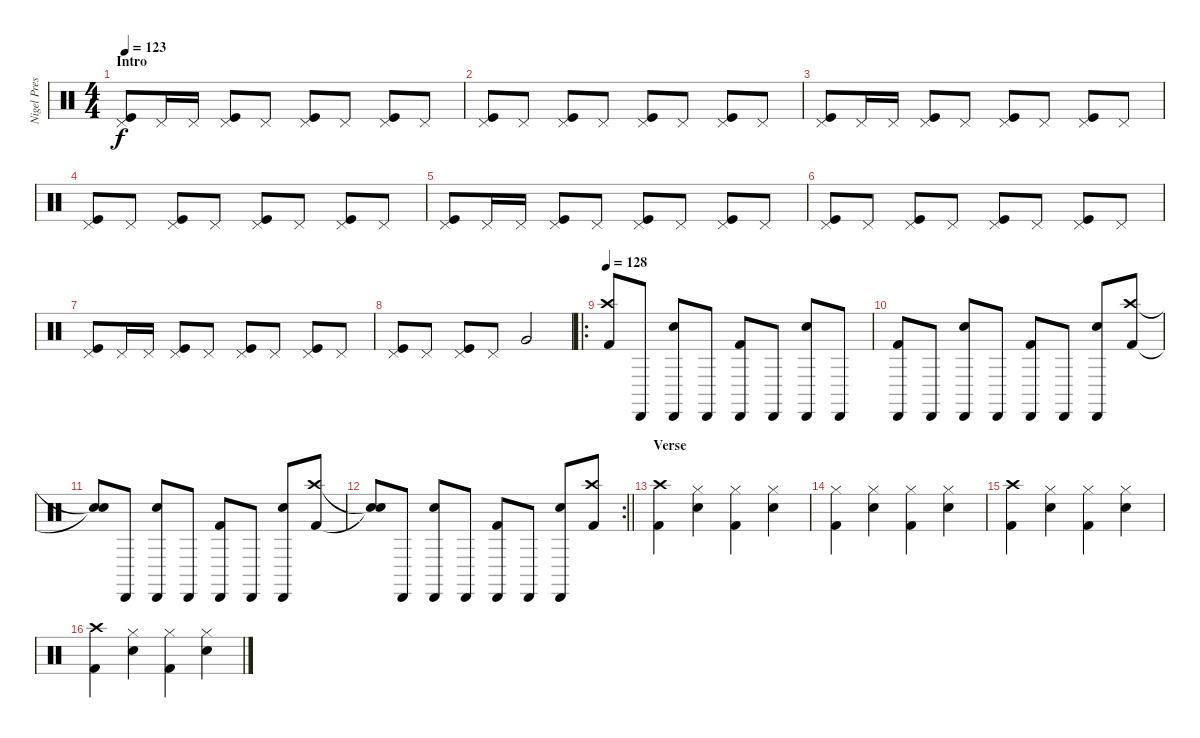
\track ("Nigel Preston" "Nigel Pres") {instrument percussion}
\staff {score}
\articulation defaults
\ts (4 4)
\section ("" "Intro")
\tempo 123
\clef neutral
\ks c
("Kick (hit)" "Pedal Hi-Hat (hit)").8{dy f} "Pedal Hi-Hat (hit)".16 "Pedal Hi-Hat (hit)".16 ("Kick (hit)" "Pedal Hi-Hat (hit)").8 "Pedal Hi-Hat (hit)".8 ("Kick (hit)" "Pedal Hi-Hat (hit)").8 "Pedal Hi-Hat (hit)".8 ("Kick (hit)" "Pedal Hi-Hat (hit)").8 "Pedal Hi-Hat (hit)".8 |
("Kick (hit)" "Pedal Hi-Hat (hit)").8 "Pedal Hi-Hat (hit)".8 ("Kick (hit)" "Pedal Hi-Hat (hit)").8 "Pedal Hi-Hat (hit)".8 ("Kick (hit)" "Pedal Hi-Hat (hit)").8 "Pedal Hi-Hat (hit)".8 ("Kick (hit)" "Pedal Hi-Hat (hit)").8 "Pedal Hi-Hat (hit)".8 |
("Kick (hit)" "Pedal Hi-Hat (hit)").8 "Pedal Hi-Hat (hit)".16 "Pedal Hi-Hat (hit)".16 ("Kick (hit)" "Pedal Hi-Hat (hit)").8 "Pedal Hi-Hat (hit)".8 ("Kick (hit)" "Pedal Hi-Hat (hit)").8 "Pedal Hi-Hat (hit)".8 ("Kick (hit)" "Pedal Hi-Hat (hit)").8 "Pedal Hi-Hat (hit)".8 |
("Kick (hit)" "Pedal Hi-Hat (hit)").8 "Pedal Hi-Hat (hit)".8 ("Kick (hit)" "Pedal Hi-Hat (hit)").8 "Pedal Hi-Hat (hit)".8 ("Kick (hit)" "Pedal Hi-Hat (hit)").8 "Pedal Hi-Hat (hit)".8 ("Kick (hit)" "Pedal Hi-Hat (hit)").8 "Pedal Hi-Hat (hit)".8 |
("Kick (hit)" "Pedal Hi-Hat (hit)").8 "Pedal Hi-Hat (hit)".16 "Pedal Hi-Hat (hit)".16 ("Kick (hit)" "Pedal Hi-Hat (hit)").8 "Pedal Hi-Hat (hit)".8 ("Kick (hit)" "Pedal Hi-Hat (hit)").8 "Pedal Hi-Hat (hit)".8 ("Kick (hit)" "Pedal Hi-Hat (hit)").8 "Pedal Hi-Hat (hit)".8 |
("Kick (hit)" "Pedal Hi-Hat (hit)").8 "Pedal Hi-Hat (hit)".8 ("Kick (hit)" "Pedal Hi-Hat (hit)").8 "Pedal Hi-Hat (hit)".8 ("Kick (hit)" "Pedal Hi-Hat (hit)").8 "Pedal Hi-Hat (hit)".8 ("Kick (hit)" "Pedal Hi-Hat (hit)").8 "Pedal Hi-Hat (hit)".8 |
("Kick (hit)" "Pedal Hi-Hat (hit)").8 "Pedal Hi-Hat (hit)".16 "Pedal Hi-Hat (hit)".16 ("Kick (hit)" "Pedal Hi-Hat (hit)").8 "Pedal Hi-Hat (hit)".8 ("Kick (hit)" "Pedal Hi-Hat (hit)").8 "Pedal Hi-Hat (hit)".8 ("Kick (hit)" "Pedal Hi-Hat (hit)").8 "Pedal Hi-Hat (hit)".8 |
("Kick (hit)" "Pedal Hi-Hat (hit)").8 "Pedal Hi-Hat (hit)".8 ("Kick (hit)" "Pedal Hi-Hat (hit)").8 "Pedal Hi-Hat (hit)".8 "Very Low Tom (hit)".2 |
\ro
\tempo 128
("Kick (hit) 2" "Crash high (hit)").8 "Cabasa (hit)".8 ("Snare (hit) 2" "Cabasa (hit)").8 "Cabasa (hit)".8 ("Kick (hit) 2" "Cabasa (hit)").8 "Cabasa (hit)".8 ("Snare (hit) 2" "Cabasa (hit)").8 "Cabasa (hit)".8 |
("Kick (hit) 2" "Cabasa (hit)").8 "Cabasa (hit)".8 ("Snare (hit) 2" "Cabasa (hit)").8 "Cabasa (hit)".8 ("Kick (hit) 2" "Cabasa (hit)").8 "Cabasa (hit)".8 ("Snare (hit) 2" "Cabasa (hit)").8 ("Kick (hit) 2" "Crash high (hit)").8 |
("Snare (hit)"{t} "Snare (hit)"{t}).8 "Cabasa (hit)".8 ("Snare (hit) 2" "Cabasa (hit)").8 "Cabasa (hit)".8 ("Kick (hit) 2" "Cabasa (hit)").8 "Cabasa (hit)".8 ("Snare (hit) 2" "Cabasa (hit)").8 ("Kick (hit) 2" "Crash high (hit)").8 |
\rc 2
\barLineRight lightlight
("Snare (hit)"{t} "Snare (hit)"{t}).8 "Cabasa (hit)".8 ("Snare (hit) 2" "Cabasa (hit)").8 "Cabasa (hit)".8 ("Kick (hit) 2" "Cabasa (hit)").8 "Cabasa (hit)".8 ("Snare (hit) 2" "Cabasa (hit)").8 ("Kick (hit) 2" "Crash high (hit)").8 |
\section ("" "Verse")
("Kick (hit) 2" "Crash high (hit)").4 ("Snare (hit) 2" "Hi-Hat (closed)").4 ("Kick (hit) 2" "Hi-Hat (closed)").4 ("Snare (hit) 2" "Hi-Hat (closed)").4 |
("Kick (hit) 2" "Hi-Hat (closed)").4 ("Snare (hit) 2" "Hi-Hat (closed)").4 ("Kick (hit) 2" "Hi-Hat (closed)").4 ("Snare (hit) 2" "Hi-Hat (closed)").4 |
("Kick (hit) 2" "Crash high (hit)").4 ("Snare (hit) 2" "Hi-Hat (closed)").4 ("Kick (hit) 2" "Hi-Hat (closed)").4 ("Snare (hit) 2" "Hi-Hat (closed)").4 |
("Kick (hit) 2" "Crash high (hit)").4 ("Snare (hit) 2" "Hi-Hat (closed)").4 ("Kick (hit) 2" "Hi-Hat (closed)").4 ("Snare (hit) 2" "Hi-Hat (closed)").4
